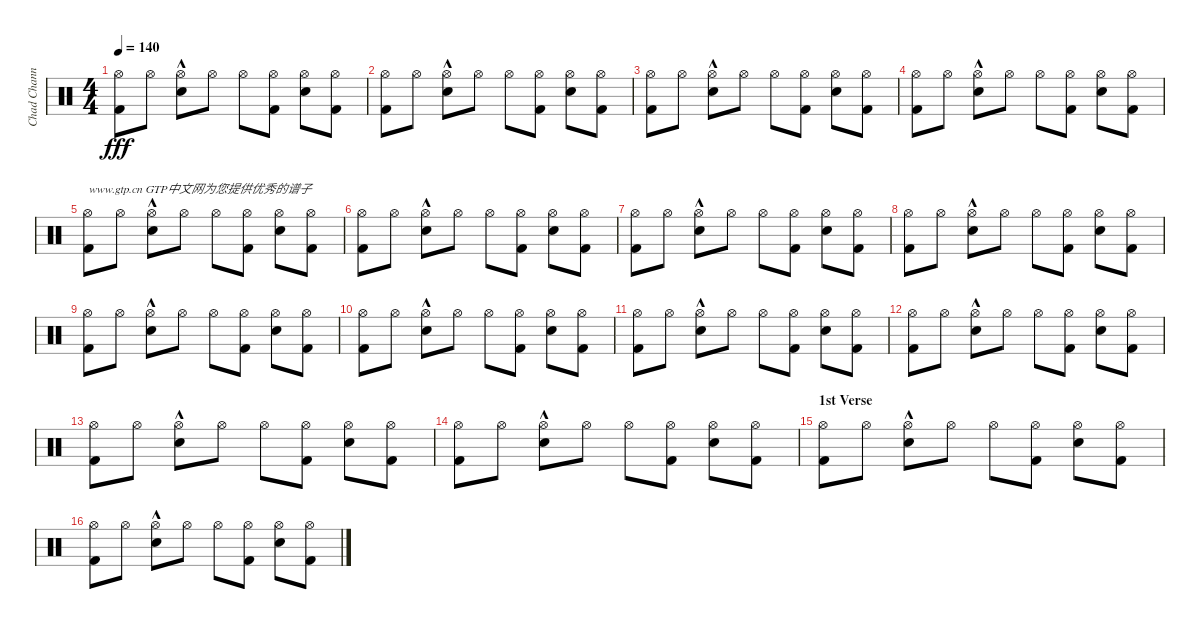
\track ("Chad Channing" "Chad Chann") {instrument percussion}
\staff {score}
\articulation defaults
\ts (4 4)
\tempo 140
\clef neutral
\ks c
("Hi-Hat (open)" "Kick (hit) 2").8{dy fff} "Hi-Hat (open)".8 ("Hi-Hat (open)" "Electric Snare (hit)"{hac}).8 "Hi-Hat (open)".8 "Hi-Hat (open)".8 ("Hi-Hat (open)" "Kick (hit) 2").8 ("Hi-Hat (open)" "Electric Snare (hit)").8 ("Hi-Hat (open)" "Kick (hit) 2").8 |
("Hi-Hat (open)" "Kick (hit) 2").8 "Hi-Hat (open)".8 ("Hi-Hat (open)" "Electric Snare (hit)"{hac}).8 "Hi-Hat (open)".8 "Hi-Hat (open)".8 ("Hi-Hat (open)" "Kick (hit) 2").8 ("Hi-Hat (open)" "Electric Snare (hit)").8 ("Hi-Hat (open)" "Kick (hit) 2").8 |
("Hi-Hat (open)" "Kick (hit) 2").8 "Hi-Hat (open)".8 ("Hi-Hat (open)" "Electric Snare (hit)"{hac}).8 "Hi-Hat (open)".8 "Hi-Hat (open)".8 ("Hi-Hat (open)" "Kick (hit) 2").8 ("Hi-Hat (open)" "Electric Snare (hit)").8 ("Hi-Hat (open)" "Kick (hit) 2").8 |
("Hi-Hat (open)" "Kick (hit) 2").8 "Hi-Hat (open)".8 ("Hi-Hat (open)" "Electric Snare (hit)"{hac}).8 "Hi-Hat (open)".8 "Hi-Hat (open)".8 ("Hi-Hat (open)" "Kick (hit) 2").8 ("Hi-Hat (open)" "Electric Snare (hit)").8 ("Hi-Hat (open)" "Kick (hit) 2").8 |
("Hi-Hat (open)" "Kick (hit) 2").8{txt "www.gtp.cn GTP中文网为您提供优秀的谱子"} "Hi-Hat (open)".8 ("Hi-Hat (open)" "Electric Snare (hit)"{hac}).8 "Hi-Hat (open)".8 "Hi-Hat (open)".8 ("Hi-Hat (open)" "Kick (hit) 2").8 ("Hi-Hat (open)" "Electric Snare (hit)").8 ("Hi-Hat (open)" "Kick (hit) 2").8 |
("Hi-Hat (open)" "Kick (hit) 2").8 "Hi-Hat (open)".8 ("Hi-Hat (open)" "Electric Snare (hit)"{hac}).8 "Hi-Hat (open)".8 "Hi-Hat (open)".8 ("Hi-Hat (open)" "Kick (hit) 2").8 ("Hi-Hat (open)" "Electric Snare (hit)").8 ("Hi-Hat (open)" "Kick (hit) 2").8 |
("Hi-Hat (open)" "Kick (hit) 2").8 "Hi-Hat (open)".8 ("Hi-Hat (open)" "Electric Snare (hit)"{hac}).8 "Hi-Hat (open)".8 "Hi-Hat (open)".8 ("Hi-Hat (open)" "Kick (hit) 2").8 ("Hi-Hat (open)" "Electric Snare (hit)").8 ("Hi-Hat (open)" "Kick (hit) 2").8 |
("Hi-Hat (open)" "Kick (hit) 2").8 "Hi-Hat (open)".8 ("Hi-Hat (open)" "Electric Snare (hit)"{hac}).8 "Hi-Hat (open)".8 "Hi-Hat (open)".8 ("Hi-Hat (open)" "Kick (hit) 2").8 ("Hi-Hat (open)" "Electric Snare (hit)").8 ("Hi-Hat (open)" "Kick (hit) 2").8 |
("Hi-Hat (open)" "Kick (hit) 2").8 "Hi-Hat (open)".8 ("Hi-Hat (open)" "Electric Snare (hit)"{hac}).8 "Hi-Hat (open)".8 "Hi-Hat (open)".8 ("Hi-Hat (open)" "Kick (hit) 2").8 ("Hi-Hat (open)" "Electric Snare (hit)").8 ("Hi-Hat (open)" "Kick (hit) 2").8 |
("Hi-Hat (open)" "Kick (hit) 2").8 "Hi-Hat (open)".8 ("Hi-Hat (open)" "Electric Snare (hit)"{hac}).8 "Hi-Hat (open)".8 "Hi-Hat (open)".8 ("Hi-Hat (open)" "Kick (hit) 2").8 ("Hi-Hat (open)" "Electric Snare (hit)").8 ("Hi-Hat (open)" "Kick (hit) 2").8 |
("Hi-Hat (open)" "Kick (hit) 2").8 "Hi-Hat (open)".8 ("Hi-Hat (open)" "Electric Snare (hit)"{hac}).8 "Hi-Hat (open)".8 "Hi-Hat (open)".8 ("Hi-Hat (open)" "Kick (hit) 2").8 ("Hi-Hat (open)" "Electric Snare (hit)").8 ("Hi-Hat (open)" "Kick (hit) 2").8 |
("Hi-Hat (open)" "Kick (hit) 2").8 "Hi-Hat (open)".8 ("Hi-Hat (open)" "Electric Snare (hit)"{hac}).8 "Hi-Hat (open)".8 "Hi-Hat (open)".8 ("Hi-Hat (open)" "Kick (hit) 2").8 ("Hi-Hat (open)" "Electric Snare (hit)").8 ("Hi-Hat (open)" "Kick (hit) 2").8 |
("Hi-Hat (open)" "Kick (hit) 2").8 "Hi-Hat (open)".8 ("Hi-Hat (open)" "Electric Snare (hit)"{hac}).8 "Hi-Hat (open)".8 "Hi-Hat (open)".8 ("Hi-Hat (open)" "Kick (hit) 2").8 ("Hi-Hat (open)" "Electric Snare (hit)").8 ("Hi-Hat (open)" "Kick (hit) 2").8 |
("Hi-Hat (open)" "Kick (hit) 2").8 "Hi-Hat (open)".8 ("Hi-Hat (open)" "Electric Snare (hit)"{hac}).8 "Hi-Hat (open)".8 "Hi-Hat (open)".8 ("Hi-Hat (open)" "Kick (hit) 2").8 ("Hi-Hat (open)" "Electric Snare (hit)").8 ("Hi-Hat (open)" "Kick (hit) 2").8 |
\section ("" "1st Verse")
("Hi-Hat (open)" "Kick (hit) 2").8 "Hi-Hat (open)".8 ("Hi-Hat (open)" "Electric Snare (hit)"{hac}).8 "Hi-Hat (open)".8 "Hi-Hat (open)".8 ("Hi-Hat (open)" "Kick (hit) 2").8 ("Hi-Hat (open)" "Electric Snare (hit)").8 ("Hi-Hat (open)" "Kick (hit) 2").8 |
("Hi-Hat (open)" "Kick (hit) 2").8 "Hi-Hat (open)".8 ("Hi-Hat (open)" "Electric Snare (hit)"{hac}).8 "Hi-Hat (open)".8 "Hi-Hat (open)".8 ("Hi-Hat (open)" "Kick (hit) 2").8 ("Hi-Hat (open)" "Electric Snare (hit)").8 ("Hi-Hat (open)" "Kick (hit) 2").8
